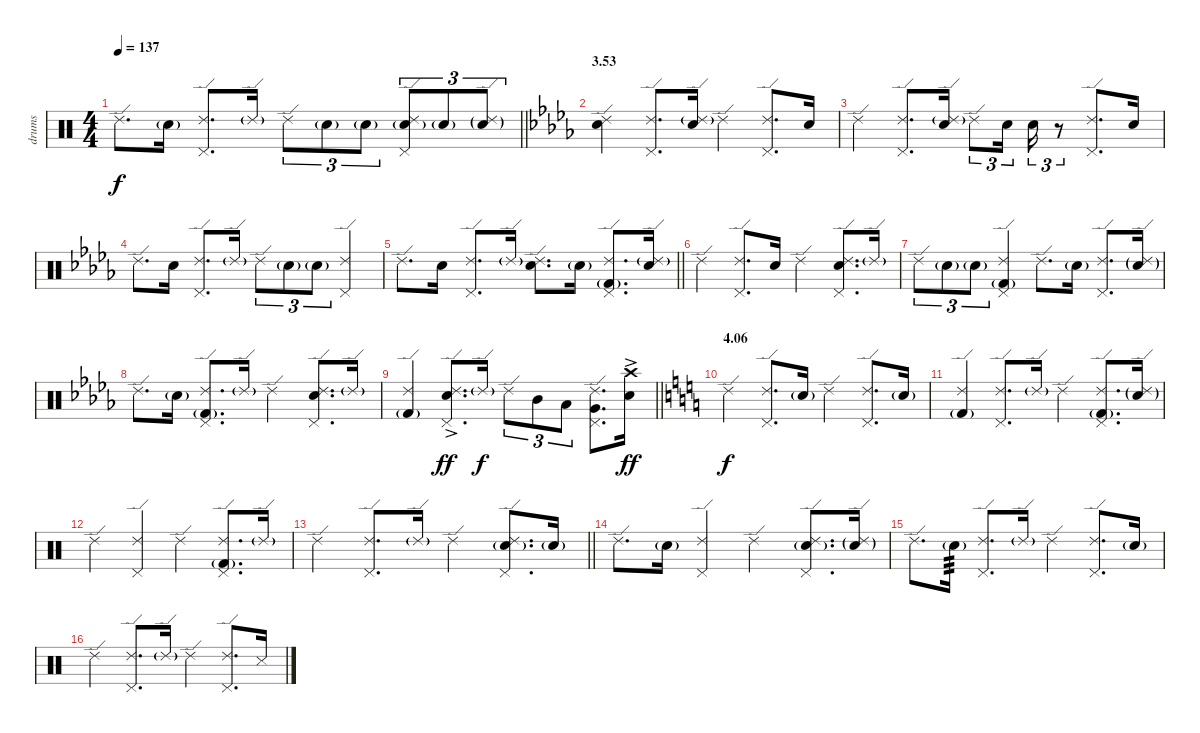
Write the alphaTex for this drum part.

\track ("drums" "drums") {instrument percussion}
\staff {score}
\articulation defaults
\ts (4 4)
\tempo 137
\clef neutral
\barLineRight lightlight
\ks c "Ride (edge) 2".8{d dy f} "Electric Snare (hit)"{g}.16
("Ride (edge) 2" "Pedal Hi-Hat (hit)").8{d} "Ride (edge) 2"{g}.16 "Ride (edge) 2".8{tu (3 2)} "Electric Snare (hit)"{g}.8{tu (3 2)} "Electric Snare (hit)"{g}.8{tu (3 2)} ("Ride (edge) 2" "Pedal Hi-Hat (hit)" "Electric Snare (hit)"{g}).8{tu (3 2)} "Electric Snare (hit)"{g}.8{tu (3 2)} ("Ride (edge) 2"{g} "Electric Snare (hit)"{g}).8{tu (3 2)} |
\section ("" "3.53")
\ks db
("Ride (edge) 2" "Electric Snare (hit)").4 ("Ride (edge) 2" "Pedal Hi-Hat (hit)").8{d} ("Ride (edge) 2"{g} "Electric Snare (hit)").16 "Ride (edge) 2".4 ("Ride (edge) 2" "Pedal Hi-Hat (hit)").8{d} "Electric Snare (hit)".16 |
"Ride (edge) 2".4 ("Ride (edge) 2" "Pedal Hi-Hat (hit)").8{d} ("Ride (edge) 2"{g} "Electric Snare (hit)").16 "Ride (edge) 2".8{tu (3 2)} "Electric Snare (hit)".16{tu (3 2)} "Electric Snare (hit)".16{tu (3 2)} r.8{tu (3 2)} ("Ride (edge) 2" "Pedal Hi-Hat (hit)").8{d} "Electric Snare (hit)".16 |
"Ride (edge) 2".8{d} "Electric Snare (hit)".16 ("Ride (edge) 2" "Pedal Hi-Hat (hit)").8{d} "Ride (edge) 2"{g}.16 "Ride (edge) 2".8{tu (3 2)} "Electric Snare (hit)"{g}.8{tu (3 2)} "Electric Snare (hit)"{g}.8{tu (3 2)} ("Ride (edge) 2" "Pedal Hi-Hat (hit)").4 |
\barLineRight lightlight "Ride (edge) 2".8{d} "Electric Snare (hit)".16
("Ride (edge) 2" "Pedal Hi-Hat (hit)").8{d} "Ride (edge) 2"{g}.16 ("Ride (edge) 2" "Electric Snare (hit)").8{d} "Electric Snare (hit)"{g}.16 ("Ride (edge) 2" "Pedal Hi-Hat (hit)" "Kick (hit) 2"{g}).8{d} ("Ride (edge) 2"{g} "Electric Snare (hit)").16 |
"Ride (edge) 2".4 ("Ride (edge) 2" "Pedal Hi-Hat (hit)").8{d} "Electric Snare (hit)".16 "Ride (edge) 2".4 ("Ride (edge) 2" "Pedal Hi-Hat (hit)" "Electric Snare (hit)").8{d} "Ride (edge) 2"{g}.16 |
"Ride (edge) 2".8{tu (3 2)} "Electric Snare (hit)"{g}.8{tu (3 2)} "Electric Snare (hit)"{g}.8{tu (3 2)} ("Ride (edge) 2" "Pedal Hi-Hat (hit)" "Kick (hit) 2"{g}).4 "Ride (edge) 2".8{d} "Electric Snare (hit)"{g}.16 ("Ride (edge) 2" "Pedal Hi-Hat (hit)").8{d} ("Ride (edge) 2"{g} "Electric Snare (hit)"{g}).16 |
"Ride (edge) 2".8{d} "Electric Snare (hit)"{g}.16 ("Ride (edge) 2" "Pedal Hi-Hat (hit)" "Kick (hit) 2"{g}).8{d} "Ride (edge) 2"{g}.16 "Ride (edge) 2".4 ("Ride (edge) 2" "Pedal Hi-Hat (hit)" "Electric Snare (hit)").8{d} "Ride (edge) 2"{g}.16 |
\barLineRight lightlight
("Ride (edge) 2" "Kick (hit) 2"{g}).4 ("Ride (edge) 2" "Pedal Hi-Hat (hit)" "Electric Snare (hit)"{ac}).8{d dy ff} "Ride (edge) 2"{g}.16{dy f} "Ride (edge) 2".8{tu (3 2)} "Mid Tom (hit)".8{tu (3 2)} "Low Tom (hit)".8{tu (3 2)} ("Ride (edge) 2" "Pedal Hi-Hat (hit)" "Very Low Tom (hit)").8{d} ("Crash high (hit)" "Electric Snare (hit)"{ac}).16{dy ff} |
\section ("" "4.06")
\ks c "Ride (edge) 2".4{dy f}
("Ride (edge) 2" "Pedal Hi-Hat (hit)").8{d} "Electric Snare (hit)"{g}.16 "Ride (edge) 2".4 ("Ride (edge) 2" "Pedal Hi-Hat (hit)").8{d} "Electric Snare (hit)"{g}.16 |
("Ride (edge) 2" "Kick (hit) 2"{g}).4 ("Ride (edge) 2" "Pedal Hi-Hat (hit)").8{d} "Ride (edge) 2"{g}.16 "Ride (edge) 2".4 ("Ride (edge) 2" "Pedal Hi-Hat (hit)" "Kick (hit) 2"{g}).8{d} ("Ride (edge) 2"{g} "Electric Snare (hit)"{g}).16 |
"Ride (edge) 2".4 ("Ride (edge) 2" "Pedal Hi-Hat (hit)").4 "Ride (edge) 2".4 ("Ride (edge) 2" "Pedal Hi-Hat (hit)" "Kick (hit) 2"{g}).8{d} "Ride (edge) 2"{g}.16 |
\barLineRight lightlight "Ride (edge) 2".4
("Ride (edge) 2" "Pedal Hi-Hat (hit)").8{d} "Ride (edge) 2"{g}.16 "Ride (edge) 2".4 ("Ride (edge) 2" "Pedal Hi-Hat (hit)" "Electric Snare (hit)"{g}).8{d} "Electric Snare (hit)"{g}.16 |
"Ride (edge) 2".8{d} "Electric Snare (hit)"{g}.16 ("Ride (edge) 2" "Pedal Hi-Hat (hit)").4 "Ride (edge) 2".4 ("Ride (edge) 2" "Pedal Hi-Hat (hit)" "Electric Snare (hit)"{g}).8{d} ("Ride (edge) 2"{g} "Electric Snare (hit)"{g}).16 |
"Ride (edge) 2".8{d} "Electric Snare (hit)"{g}.16{tp 3} ("Ride (edge) 2" "Pedal Hi-Hat (hit)").8{d} "Ride (edge) 2"{g}.16 "Ride (edge) 2".4 ("Ride (edge) 2" "Pedal Hi-Hat (hit)").8{d} "Electric Snare (hit)"{g}.16 |
"Ride (edge) 2".4 ("Ride (edge) 2" "Pedal Hi-Hat (hit)").8{d} "Ride (edge) 2"{g}.16 "Ride (edge) 2".4 ("Ride (edge) 2" "Pedal Hi-Hat (hit)").8{d} "Snare (side stick) 3".16
